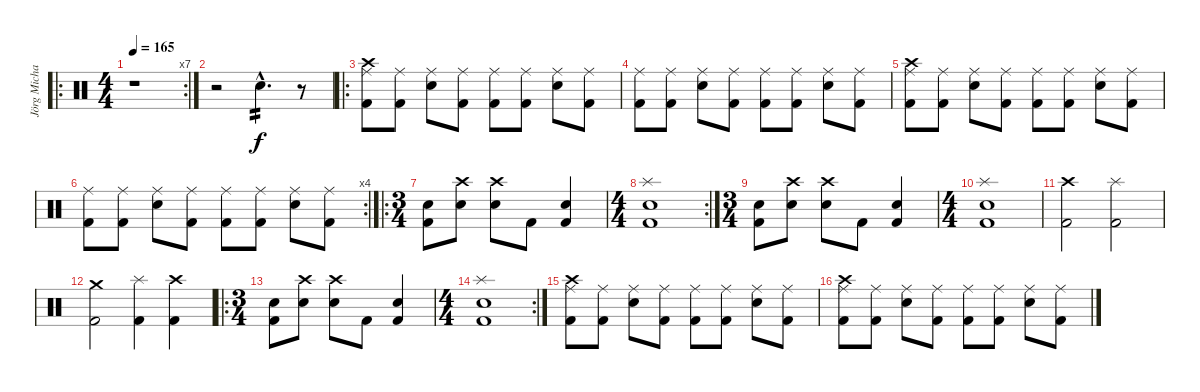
\track ("Jörg Michael" "Jörg Micha") {instrument percussion}
\staff {score}
\articulation defaults
\ro
\rc 7
\ts (4 4)
\tempo 165
\clef neutral
\ks c
r.1{dy f} |
r.2 "Snare (hit) 2"{hac}.4{d tp 2} r.8 |
\ro
("Kick (hit) 2" "Ride (middle)" "Crash high (hit)").8 ("Kick (hit) 2" "Ride (middle)").8 ("Snare (hit) 2" "Ride (middle)").8 ("Kick (hit) 2" "Ride (middle)").8 ("Kick (hit) 2" "Ride (middle)").8 ("Kick (hit) 2" "Ride (middle)").8 ("Snare (hit) 2" "Ride (middle)").8 ("Kick (hit) 2" "Ride (middle)").8 |
("Kick (hit) 2" "Ride (middle)").8 ("Kick (hit) 2" "Ride (middle)").8 ("Snare (hit) 2" "Ride (middle)").8 ("Kick (hit) 2" "Ride (middle)").8 ("Kick (hit) 2" "Ride (middle)").8 ("Kick (hit) 2" "Ride (middle)").8 ("Snare (hit) 2" "Ride (middle)").8 ("Kick (hit) 2" "Ride (middle)").8 |
("Kick (hit) 2" "Ride (middle)" "Crash high (hit)").8 ("Kick (hit) 2" "Ride (middle)").8 ("Snare (hit) 2" "Ride (middle)").8 ("Kick (hit) 2" "Ride (middle)").8 ("Kick (hit) 2" "Ride (middle)").8 ("Kick (hit) 2" "Ride (middle)").8 ("Snare (hit) 2" "Ride (middle)").8 ("Kick (hit) 2" "Ride (middle)").8 |
\rc 4
("Kick (hit) 2" "Ride (middle)").8 ("Kick (hit) 2" "Ride (middle)").8 ("Snare (hit) 2" "Ride (middle)").8 ("Kick (hit) 2" "Ride (middle)").8 ("Kick (hit) 2" "Ride (middle)").8 ("Kick (hit) 2" "Ride (middle)").8 ("Snare (hit) 2" "Ride (middle)").8 ("Kick (hit) 2" "Ride (middle)").8 |
\ro
\ts (3 4)
("Snare (hit) 2" "Kick (hit) 2").8 ("Electric Snare (hit)" "Crash high (hit)").8 ("Crash high (hit)" "Electric Snare (hit)").8 "Kick (hit) 2".8 ("Snare (hit) 2" "Kick (hit) 2").4 |
\rc 2
\ts (4 4)
("Kick (hit) 2" "Snare (hit) 2" "Splash (hit)").1 |
\ts (3 4)
("Snare (hit) 2" "Kick (hit) 2").8 ("Electric Snare (hit)" "Crash high (hit)").8 ("Crash high (hit)" "Electric Snare (hit)").8 "Kick (hit) 2".8 ("Snare (hit) 2" "Kick (hit) 2").4 |
\ts (4 4)
("Kick (hit) 2" "Snare (hit) 2" "Splash (hit)").1 |
("Crash high (hit)" "Kick (hit) 2").2 ("Splash (hit)" "Kick (hit) 2").2 |
("Kick (hit) 2" "Crash medium (hit)").2 ("Splash (hit)" "Kick (hit) 2").4 ("Crash high (hit)" "Kick (hit) 2").4 |
\ro
\ts (3 4)
("Snare (hit) 2" "Kick (hit) 2").8 ("Electric Snare (hit)" "Crash high (hit)").8 ("Crash high (hit)" "Electric Snare (hit)").8 "Kick (hit) 2".8 ("Snare (hit) 2" "Kick (hit) 2").4 |
\rc 2
\ts (4 4)
("Kick (hit) 2" "Snare (hit) 2" "Splash (hit)").1 |
("Kick (hit) 2" "Ride (middle)" "Crash high (hit)").8 ("Kick (hit) 2" "Ride (middle)").8 ("Snare (hit) 2" "Ride (middle)").8 ("Kick (hit) 2" "Ride (middle)").8 ("Kick (hit) 2" "Ride (middle)").8 ("Kick (hit) 2" "Ride (middle)").8 ("Snare (hit) 2" "Ride (middle)").8 ("Kick (hit) 2" "Ride (middle)").8 |
("Kick (hit) 2" "Ride (middle)" "Crash high (hit)").8 ("Kick (hit) 2" "Ride (middle)").8 ("Snare (hit) 2" "Ride (middle)").8 ("Kick (hit) 2" "Ride (middle)").8 ("Kick (hit) 2" "Ride (middle)").8 ("Kick (hit) 2" "Ride (middle)").8 ("Snare (hit) 2" "Ride (middle)").8 ("Kick (hit) 2" "Ride (middle)").8
